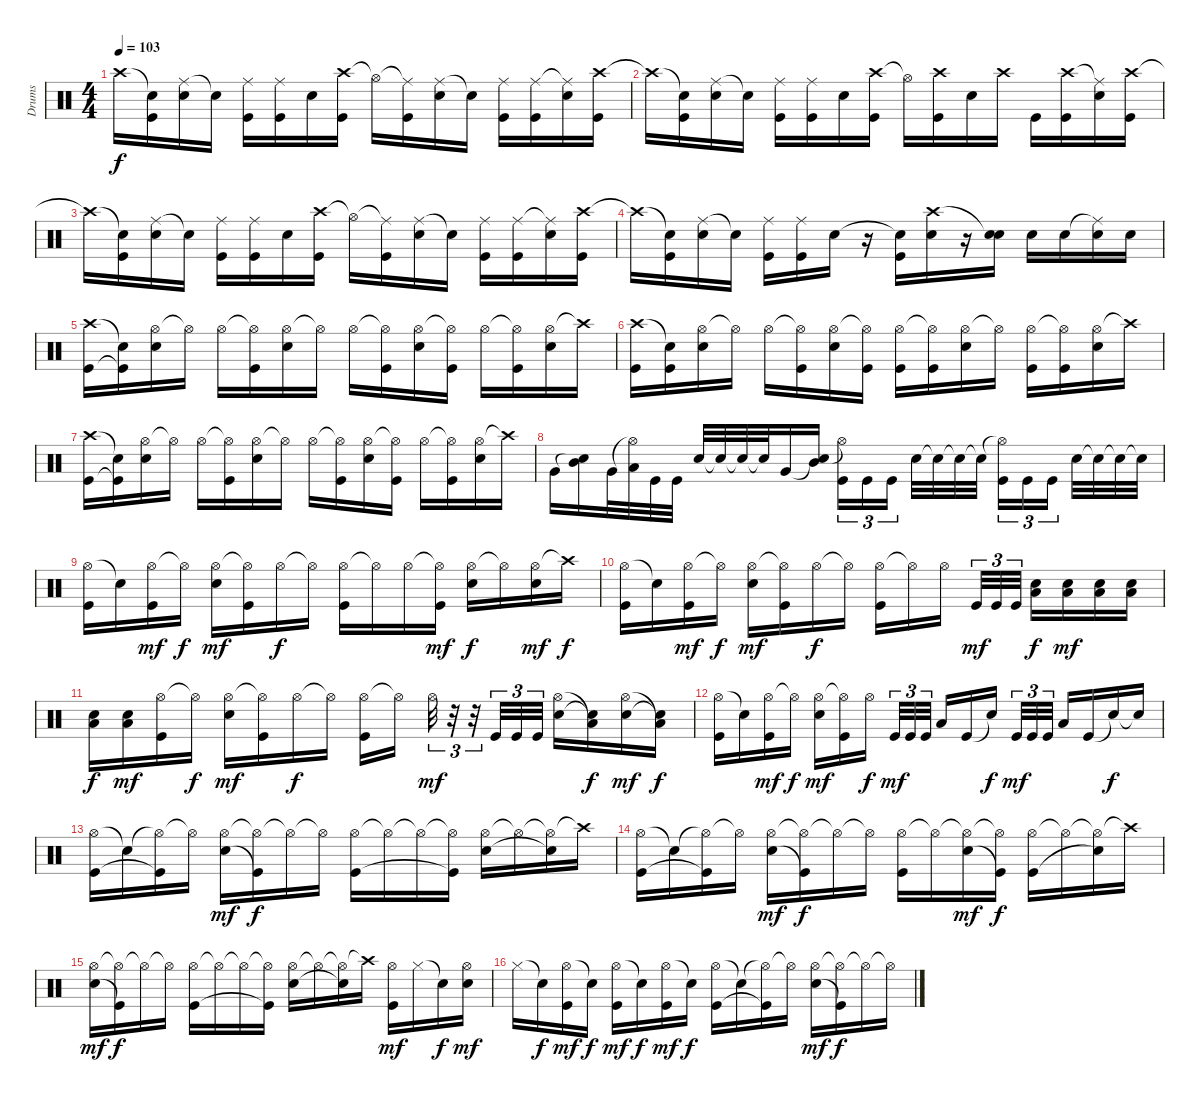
\track ("Drums" "Drums") {instrument percussion}
\staff {score}
\articulation defaults
\ts (4 4)
\tempo 103
\clef neutral
\ks c "Crash high (hit)"{t}.16{dy f}
("Snare (hit)"{t} "Kick (hit)").16 ("Ride (middle)" "Electric Snare (hit)").16 "Snare (hit)"{t}.16 ("Ride (middle)" "Kick (hit)").16 ("Ride (middle)" "Kick (hit)").16 "Electric Snare (hit)".16 ("Crash high (hit)" "Kick (hit)").16 "Hi-Hat (open)"{t}.16 ("Ride (middle)"{t} "Kick (hit)").16 ("Ride (middle)" "Electric Snare (hit)").16 "Snare (hit)"{t}.16 ("Ride (middle)" "Kick (hit)").16 ("Ride (middle)" "Kick (hit)").16 ("Ride (middle)"{t} "Electric Snare (hit)").16 ("Crash high (hit)" "Kick (hit)").16 |
"Crash high (hit)"{t}.16 ("Snare (hit)"{t} "Kick (hit)").16 ("Ride (middle)" "Electric Snare (hit)").16 "Snare (hit)"{t}.16 ("Ride (middle)" "Kick (hit)").16 ("Ride (middle)" "Kick (hit)").16 "Electric Snare (hit)".16 ("Crash high (hit)" "Kick (hit)").16 "Hi-Hat (open)"{t}.16 ("Crash high (hit)" "Kick (hit)").16 "Electric Snare (hit)".16 "Crash high (hit)".16 "Kick (hit)".16 ("Crash high (hit)" "Kick (hit)").16 ("Ride (middle)"{t} "Electric Snare (hit)").16 ("Crash high (hit)" "Kick (hit)").16 |
"Crash high (hit)"{t}.16 ("Snare (hit)"{t} "Kick (hit)").16 ("Ride (middle)" "Electric Snare (hit)").16 "Snare (hit)"{t}.16 ("Ride (middle)" "Kick (hit)").16 ("Ride (middle)" "Kick (hit)").16 "Electric Snare (hit)".16 ("Crash high (hit)" "Kick (hit)").16 "Hi-Hat (open)"{t}.16 ("Ride (middle)"{t} "Kick (hit)").16 ("Ride (middle)" "Electric Snare (hit)").16 "Snare (hit)"{t}.16 ("Ride (middle)" "Kick (hit)").16 ("Ride (middle)" "Kick (hit)").16 ("Ride (middle)"{t} "Electric Snare (hit)").16 ("Crash high (hit)" "Kick (hit)").16 |
"Crash high (hit)"{t}.16 ("Snare (hit)"{t} "Kick (hit)").16 ("Ride (middle)" "Electric Snare (hit)").16 "Snare (hit)"{t}.16 ("Ride (middle)" "Kick (hit)").16 ("Ride (middle)" "Kick (hit)").16 "Electric Snare (hit)".16 r.16 ("Snare (hit)"{t} "Kick (hit)").16 ("Crash high (hit)" "Electric Snare (hit)").16 r.16 ("Snare (hit)"{t} "Electric Snare (hit)").16 "Electric Snare (hit)".16 "Electric Snare (hit)".16 ("Ride (middle)"{t} "Electric Snare (hit)").16 "Electric Snare (hit)".16 |
("Crash high (hit)" "Kick (hit)").16 ("Snare (hit)"{t} "Kick (hit)"{t}).16 ("Hi-Hat (open)" "Electric Snare (hit)").16 "Hi-Hat (open)"{t}.16 "Hi-Hat (open)".16 ("Hi-Hat (open)"{t} "Kick (hit)").16 ("Hi-Hat (open)" "Electric Snare (hit)").16 "Hi-Hat (open)"{t}.16 "Hi-Hat (open)".16 ("Hi-Hat (open)"{t} "Kick (hit)").16 ("Hi-Hat (open)" "Electric Snare (hit)").16 ("Hi-Hat (open)"{t} "Kick (hit)").16 "Hi-Hat (open)".16 ("Hi-Hat (open)"{t} "Kick (hit)").16 ("Hi-Hat (open)" "Electric Snare (hit)").16 "Crash high (hit)"{t}.16 |
("Crash high (hit)" "Kick (hit)").16 ("Snare (hit)"{t} "Kick (hit)").16 ("Hi-Hat (open)" "Electric Snare (hit)").16 "Hi-Hat (open)"{t}.16 "Hi-Hat (open)".16 ("Hi-Hat (open)"{t} "Kick (hit)").16 ("Hi-Hat (open)" "Electric Snare (hit)").16 ("Hi-Hat (open)"{t} "Kick (hit)").16 ("Hi-Hat (open)" "Kick (hit)").16 ("Hi-Hat (open)"{t} "Kick (hit)").16 ("Hi-Hat (open)" "Electric Snare (hit)").16 "Hi-Hat (open)"{t}.16 ("Hi-Hat (open)" "Kick (hit)").16 ("Hi-Hat (open)"{t} "Kick (hit)").16 ("Hi-Hat (open)" "Electric Snare (hit)").16 "Crash high (hit)"{t}.16 |
("Crash high (hit)" "Kick (hit)").16 ("Snare (hit)"{t} "Kick (hit)"{t}).16 ("Hi-Hat (open)" "Electric Snare (hit)").16 "Hi-Hat (open)"{t}.16 "Hi-Hat (open)".16 ("Hi-Hat (open)"{t} "Kick (hit)").16 ("Hi-Hat (open)" "Electric Snare (hit)").16 "Hi-Hat (open)"{t}.16 "Hi-Hat (open)".16 ("Hi-Hat (open)"{t} "Kick (hit)").16 ("Hi-Hat (open)" "Electric Snare (hit)").16 ("Hi-Hat (open)"{t} "Kick (hit)").16 "Hi-Hat (open)".16 ("Hi-Hat (open)"{t} "Kick (hit)").16 ("Hi-Hat (open)" "Electric Snare (hit)").16 "Crash high (hit)"{t}.16 |
"Very Low Tom (hit)".16 ("Snare (hit)"{t} "Mid Tom (hit)").16 "Very Low Tom (hit)".32 ("Hi-Hat (open)"{t} "Low Floor Tom (hit)").32 "Kick (hit)".32 "Kick (hit)".32 "Electric Snare (hit)".32 "Snare (hit)"{t}.32 "Snare (hit)"{t}.32 "Snare (hit)"{t}.32 "Very Low Tom (hit)".16 ("Snare (hit)"{t} "Mid Tom (hit)").16 ("Hi-Hat (open)"{t} "Kick (hit)").16{tu (3 2)} "Kick (hit)".16{tu (3 2)} "Kick (hit)".16{tu (3 2)} "Electric Snare (hit)".32 "Snare (hit)"{t}.32 "Snare (hit)"{t}.32 "Snare (hit)"{t}.32 ("Hi-Hat (open)"{t} "Kick (hit)").16{tu (3 2)} "Kick (hit)".16{tu (3 2)} "Kick (hit)".16{tu (3 2)} "Electric Snare (hit)".32 "Snare (hit)"{t}.32 "Snare (hit)"{t}.32 "Snare (hit)"{t}.32 |
("Hi-Hat (open)" "Kick (hit)").16 "Snare (hit)"{t}.16 ("Hi-Hat (open)" "Kick (hit)").16{dy mf} "Hi-Hat (open)"{t}.16{dy f} ("Hi-Hat (open)" "Electric Snare (hit)").16{dy mf} ("Hi-Hat (open)"{t} "Kick (hit)").16 "Hi-Hat (open)".16{dy f} "Hi-Hat (open)"{t}.16 ("Hi-Hat (open)" "Kick (hit)").16 "Hi-Hat (open)"{t}.16 "Hi-Hat (open)".16 ("Hi-Hat (open)"{t} "Kick (hit)").16{dy mf} ("Hi-Hat (open)" "Electric Snare (hit)").16{dy f} "Hi-Hat (open)"{t}.16 ("Hi-Hat (open)" "Electric Snare (hit)").16{dy mf} "Crash high (hit)"{t}.16{dy f} |
("Hi-Hat (open)" "Kick (hit)").16 "Snare (hit)"{t}.16 ("Hi-Hat (open)" "Kick (hit)").16{dy mf} "Hi-Hat (open)"{t}.16{dy f} ("Hi-Hat (open)" "Electric Snare (hit)").16{dy mf} ("Hi-Hat (open)"{t} "Kick (hit)").16 "Hi-Hat (open)".16{dy f} "Hi-Hat (open)"{t}.16 ("Hi-Hat (open)" "Kick (hit)").16 "Hi-Hat (open)"{t}.16 "Hi-Hat (open)".16 "Kick (hit)".32{tu (3 2) dy mf} "Kick (hit)".32{tu (3 2)} "Kick (hit)".32{tu (3 2)} ("Low Floor Tom (hit)" "Electric Snare (hit)").16{dy f} ("Low Floor Tom (hit)" "Electric Snare (hit)").16{dy mf} ("Low Floor Tom (hit)" "Electric Snare (hit)").16 ("Low Floor Tom (hit)" "Electric Snare (hit)").16 |
("Low Floor Tom (hit)" "Electric Snare (hit)").16{dy f} ("Low Floor Tom (hit)" "Electric Snare (hit)").16{dy mf} ("Hi-Hat (open)" "Kick (hit)").16 "Hi-Hat (open)"{t}.16{dy f} ("Hi-Hat (open)" "Electric Snare (hit)").16{dy mf} ("Hi-Hat (open)"{t} "Kick (hit)").16 "Hi-Hat (open)".16{dy f} "Hi-Hat (open)"{t}.16 ("Hi-Hat (open)" "Kick (hit)").16 "Hi-Hat (open)"{t}.16 "Hi-Hat (open)".32{tu (3 2) dy mf} r.32{tu (3 2)} r.32{tu (3 2)} "Kick (hit)".32{tu (3 2)} "Kick (hit)".32{tu (3 2)} "Kick (hit)".32{tu (3 2)} ("Hi-Hat (open)" "Electric Snare (hit)").16 ("Low Floor Tom (hit)"{t} "Electric Snare (hit)"{t}).16{dy f} ("Hi-Hat (open)" "Electric Snare (hit)").16{dy mf} ("Low Floor Tom (hit)"{t} "Electric Snare (hit)"{t}).16{dy f} |
("Hi-Hat (open)" "Kick (hit)").16 "Snare (hit)"{t}.16 ("Hi-Hat (open)" "Kick (hit)").16{dy mf} "Hi-Hat (open)"{t}.16{dy f} ("Hi-Hat (open)" "Electric Snare (hit)").16{dy mf} ("Hi-Hat (open)"{t} "Kick (hit)").16 "Hi-Hat (open)".16{dy f} "Kick (hit)".32{tu (3 2) dy mf} "Kick (hit)".32{tu (3 2)} "Kick (hit)".32{tu (3 2)} "Low Floor Tom (hit)".16 "Kick (hit)".16 "Snare (hit)"{t}.16{dy f} "Kick (hit)".32{tu (3 2) dy mf} "Kick (hit)".32{tu (3 2)} "Kick (hit)".32{tu (3 2)} "Low Floor Tom (hit)".16 "Kick (hit)".16 "Snare (hit)"{t}.16{dy f} "Snare (hit)"{t}.16 |
("Hi-Hat (open)" "Kick (hit)").16 "Snare (hit)"{t}.16 ("Hi-Hat (open)"{t} "Kick (hit)"{t}).16 "Hi-Hat (open)"{t}.16 ("Hi-Hat (open)" "Electric Snare (hit)").16{dy mf} ("Hi-Hat (open)"{t} "Kick (hit)"{t}).16{dy f} "Hi-Hat (open)"{t}.16 "Hi-Hat (open)"{t}.16 ("Hi-Hat (open)" "Kick (hit)").16 "Hi-Hat (open)"{t}.16 "Hi-Hat (open)"{t}.16 ("Hi-Hat (open)"{t} "Kick (hit)"{t}).16 ("Hi-Hat (open)" "Electric Snare (hit)").16 "Hi-Hat (open)"{t}.16 ("Hi-Hat (open)"{t} "Electric Snare (hit)"{t}).16 "Crash high (hit)"{t}.16 |
("Hi-Hat (open)" "Kick (hit)").16 "Snare (hit)"{t}.16 ("Hi-Hat (open)"{t} "Kick (hit)"{t}).16 "Hi-Hat (open)"{t}.16 ("Hi-Hat (open)" "Electric Snare (hit)").16{dy mf} ("Hi-Hat (open)"{t} "Kick (hit)"{t}).16{dy f} "Hi-Hat (open)"{t}.16 "Hi-Hat (open)"{t}.16 ("Hi-Hat (open)" "Kick (hit)").16 "Hi-Hat (open)"{t}.16 ("Hi-Hat (open)"{t} "Electric Snare (hit)").16{dy mf} ("Hi-Hat (open)"{t} "Kick (hit)"{t}).16{dy f} ("Hi-Hat (open)" "Kick (hit)").16 "Hi-Hat (open)"{t}.16 ("Hi-Hat (open)"{t} "Electric Snare (hit)"{t}).16 "Crash high (hit)"{t}.16 |
("Hi-Hat (open)" "Electric Snare (hit)").16{dy mf} ("Hi-Hat (open)"{t} "Kick (hit)"{t}).16{dy f} "Hi-Hat (open)"{t}.16 "Hi-Hat (open)"{t}.16 ("Hi-Hat (open)" "Kick (hit)").16 "Hi-Hat (open)"{t}.16 "Hi-Hat (open)"{t}.16 ("Hi-Hat (open)"{t} "Kick (hit)"{t}).16 ("Hi-Hat (open)" "Electric Snare (hit)").16 "Hi-Hat (open)"{t}.16 ("Hi-Hat (open)"{t} "Electric Snare (hit)"{t}).16 "Crash high (hit)"{t}.16 ("Hi-Hat (open)" "Kick (hit)").16{dy mf} "Hi-Hat (closed)".16 "Snare (hit)"{t}.16{dy f} ("Hi-Hat (open)" "Electric Snare (hit)").16{dy mf} |
"Hi-Hat (closed)".16 "Snare (hit)"{t}.16{dy f} ("Hi-Hat (open)" "Kick (hit)").16{dy mf} "Snare (hit)"{t}.16{dy f} ("Hi-Hat (open)" "Kick (hit)").16{dy mf} "Snare (hit)"{t}.16{dy f} ("Hi-Hat (open)" "Kick (hit)").16{dy mf} "Snare (hit)"{t}.16{dy f} ("Hi-Hat (open)" "Kick (hit)").16 "Snare (hit)"{t}.16 ("Hi-Hat (open)"{t} "Kick (hit)"{t}).16 "Hi-Hat (open)"{t}.16 ("Hi-Hat (open)" "Electric Snare (hit)").16{dy mf} ("Hi-Hat (open)"{t} "Kick (hit)"{t}).16{dy f} "Hi-Hat (open)"{t}.16 "Hi-Hat (open)"{t}.16
